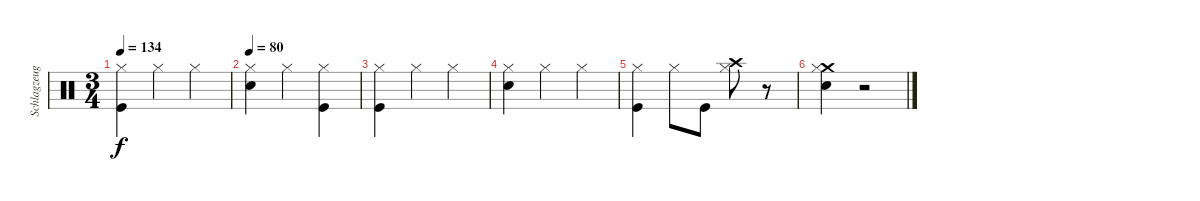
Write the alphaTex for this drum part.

\track ("Schlagzeug" "Schlagzeug") {instrument percussion}
\staff {score}
\articulation defaults
\ts (3 4)
\tempo 134
\clef neutral
\ks c
("Hi-Hat (closed)" "Kick (hit)").4{dy f} "Hi-Hat (closed)".4 "Hi-Hat (closed)".4 |
\tempo 80
("Hi-Hat (closed)" "Snare (hit) 2").4 "Hi-Hat (closed)".4 ("Hi-Hat (closed)" "Kick (hit)").4 |
("Hi-Hat (closed)" "Kick (hit)").4 "Hi-Hat (closed)".4 "Hi-Hat (closed)".4 |
("Hi-Hat (closed)" "Snare (hit) 2").4 "Hi-Hat (closed)".4 "Hi-Hat (closed)".4 |
("Hi-Hat (closed)" "Kick (hit)").4 "Hi-Hat (closed)".8 "Kick (hit)".8 ("Crash high (hit)" "Hi-Hat (closed)").8 r.8 |
("Crash medium (hit)" "Hi-Hat (closed)" "Snare (hit) 2").4 r.2
